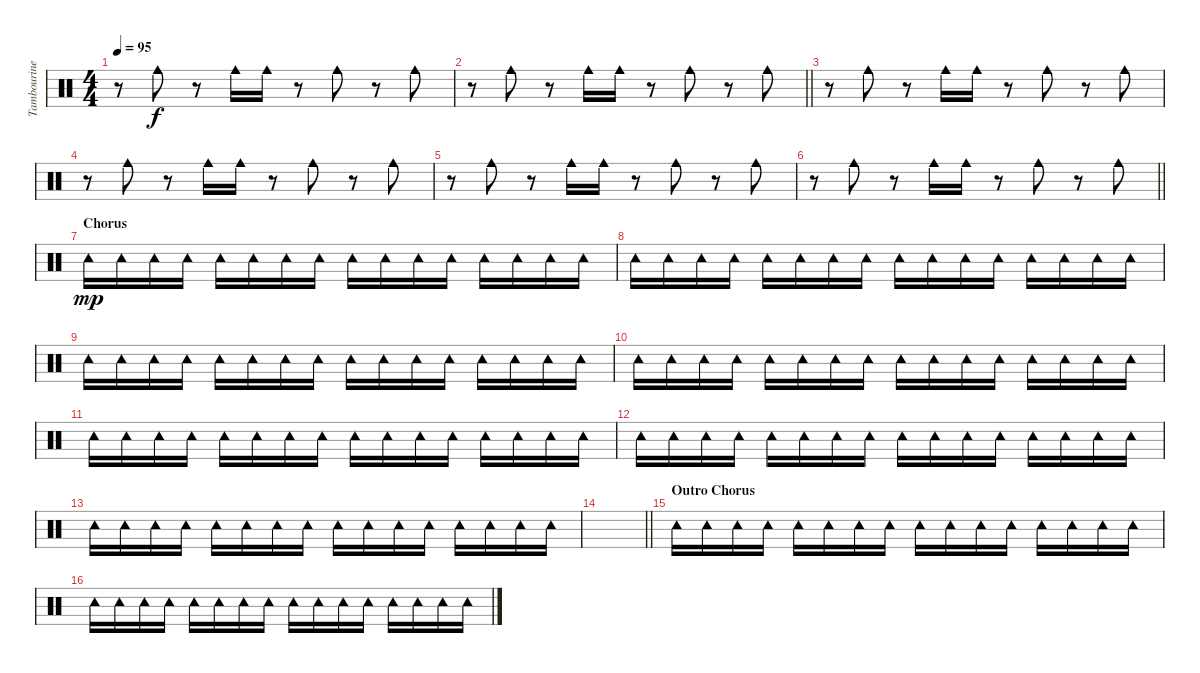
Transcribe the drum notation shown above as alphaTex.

\track ("Tambourine" "Tambourine") {instrument percussion}
\staff {score}
\articulation defaults
\ts (4 4)
\tempo 95
\clef neutral
\ks c
r.8{dy f} "Cowbell medium (hit)".8 r.8 "Cowbell medium (hit)".16 "Cowbell medium (hit)".16 r.8 "Cowbell medium (hit)".8 r.8 "Cowbell medium (hit)".8 |
\barLineRight lightlight
r.8 "Cowbell medium (hit)".8 r.8 "Cowbell medium (hit)".16 "Cowbell medium (hit)".16 r.8 "Cowbell medium (hit)".8 r.8 "Cowbell medium (hit)".8 |
r.8 "Cowbell medium (hit)".8 r.8 "Cowbell medium (hit)".16 "Cowbell medium (hit)".16 r.8 "Cowbell medium (hit)".8 r.8 "Cowbell medium (hit)".8 |
r.8 "Cowbell medium (hit)".8 r.8 "Cowbell medium (hit)".16 "Cowbell medium (hit)".16 r.8 "Cowbell medium (hit)".8 r.8 "Cowbell medium (hit)".8 |
r.8 "Cowbell medium (hit)".8 r.8 "Cowbell medium (hit)".16 "Cowbell medium (hit)".16 r.8 "Cowbell medium (hit)".8 r.8 "Cowbell medium (hit)".8 |
\barLineRight lightlight
r.8 "Cowbell medium (hit)".8 r.8 "Cowbell medium (hit)".16 "Cowbell medium (hit)".16 r.8 "Cowbell medium (hit)".8 r.8 "Cowbell medium (hit)".8 |
\section ("" "Chorus")
"Tambourine (hit)".16{dy mp} "Tambourine (hit)".16 "Tambourine (hit)".16 "Tambourine (hit)".16 "Tambourine (hit)".16 "Tambourine (hit)".16 "Tambourine (hit)".16 "Tambourine (hit)".16 "Tambourine (hit)".16 "Tambourine (hit)".16 "Tambourine (hit)".16 "Tambourine (hit)".16 "Tambourine (hit)".16 "Tambourine (hit)".16 "Tambourine (hit)".16 "Tambourine (hit)".16 |
"Tambourine (hit)".16 "Tambourine (hit)".16 "Tambourine (hit)".16 "Tambourine (hit)".16 "Tambourine (hit)".16 "Tambourine (hit)".16 "Tambourine (hit)".16 "Tambourine (hit)".16 "Tambourine (hit)".16 "Tambourine (hit)".16 "Tambourine (hit)".16 "Tambourine (hit)".16 "Tambourine (hit)".16 "Tambourine (hit)".16 "Tambourine (hit)".16 "Tambourine (hit)".16 |
"Tambourine (hit)".16 "Tambourine (hit)".16 "Tambourine (hit)".16 "Tambourine (hit)".16 "Tambourine (hit)".16 "Tambourine (hit)".16 "Tambourine (hit)".16 "Tambourine (hit)".16 "Tambourine (hit)".16 "Tambourine (hit)".16 "Tambourine (hit)".16 "Tambourine (hit)".16 "Tambourine (hit)".16 "Tambourine (hit)".16 "Tambourine (hit)".16 "Tambourine (hit)".16 |
"Tambourine (hit)".16 "Tambourine (hit)".16 "Tambourine (hit)".16 "Tambourine (hit)".16 "Tambourine (hit)".16 "Tambourine (hit)".16 "Tambourine (hit)".16 "Tambourine (hit)".16 "Tambourine (hit)".16 "Tambourine (hit)".16 "Tambourine (hit)".16 "Tambourine (hit)".16 "Tambourine (hit)".16 "Tambourine (hit)".16 "Tambourine (hit)".16 "Tambourine (hit)".16 |
"Tambourine (hit)".16 "Tambourine (hit)".16 "Tambourine (hit)".16 "Tambourine (hit)".16 "Tambourine (hit)".16 "Tambourine (hit)".16 "Tambourine (hit)".16 "Tambourine (hit)".16 "Tambourine (hit)".16 "Tambourine (hit)".16 "Tambourine (hit)".16 "Tambourine (hit)".16 "Tambourine (hit)".16 "Tambourine (hit)".16 "Tambourine (hit)".16 "Tambourine (hit)".16 |
"Tambourine (hit)".16 "Tambourine (hit)".16 "Tambourine (hit)".16 "Tambourine (hit)".16 "Tambourine (hit)".16 "Tambourine (hit)".16 "Tambourine (hit)".16 "Tambourine (hit)".16 "Tambourine (hit)".16 "Tambourine (hit)".16 "Tambourine (hit)".16 "Tambourine (hit)".16 "Tambourine (hit)".16 "Tambourine (hit)".16 "Tambourine (hit)".16 "Tambourine (hit)".16 |
"Tambourine (hit)".16 "Tambourine (hit)".16 "Tambourine (hit)".16 "Tambourine (hit)".16 "Tambourine (hit)".16 "Tambourine (hit)".16 "Tambourine (hit)".16 "Tambourine (hit)".16 "Tambourine (hit)".16 "Tambourine (hit)".16 "Tambourine (hit)".16 "Tambourine (hit)".16 "Tambourine (hit)".16 "Tambourine (hit)".16 "Tambourine (hit)".16 "Tambourine (hit)".16 |
\barLineRight lightlight
|
\section ("" "Outro Chorus")
"Tambourine (hit)".16 "Tambourine (hit)".16 "Tambourine (hit)".16 "Tambourine (hit)".16 "Tambourine (hit)".16 "Tambourine (hit)".16 "Tambourine (hit)".16 "Tambourine (hit)".16 "Tambourine (hit)".16 "Tambourine (hit)".16 "Tambourine (hit)".16 "Tambourine (hit)".16 "Tambourine (hit)".16 "Tambourine (hit)".16 "Tambourine (hit)".16 "Tambourine (hit)".16 |
"Tambourine (hit)".16 "Tambourine (hit)".16 "Tambourine (hit)".16 "Tambourine (hit)".16 "Tambourine (hit)".16 "Tambourine (hit)".16 "Tambourine (hit)".16 "Tambourine (hit)".16 "Tambourine (hit)".16 "Tambourine (hit)".16 "Tambourine (hit)".16 "Tambourine (hit)".16 "Tambourine (hit)".16 "Tambourine (hit)".16 "Tambourine (hit)".16 "Tambourine (hit)".16
